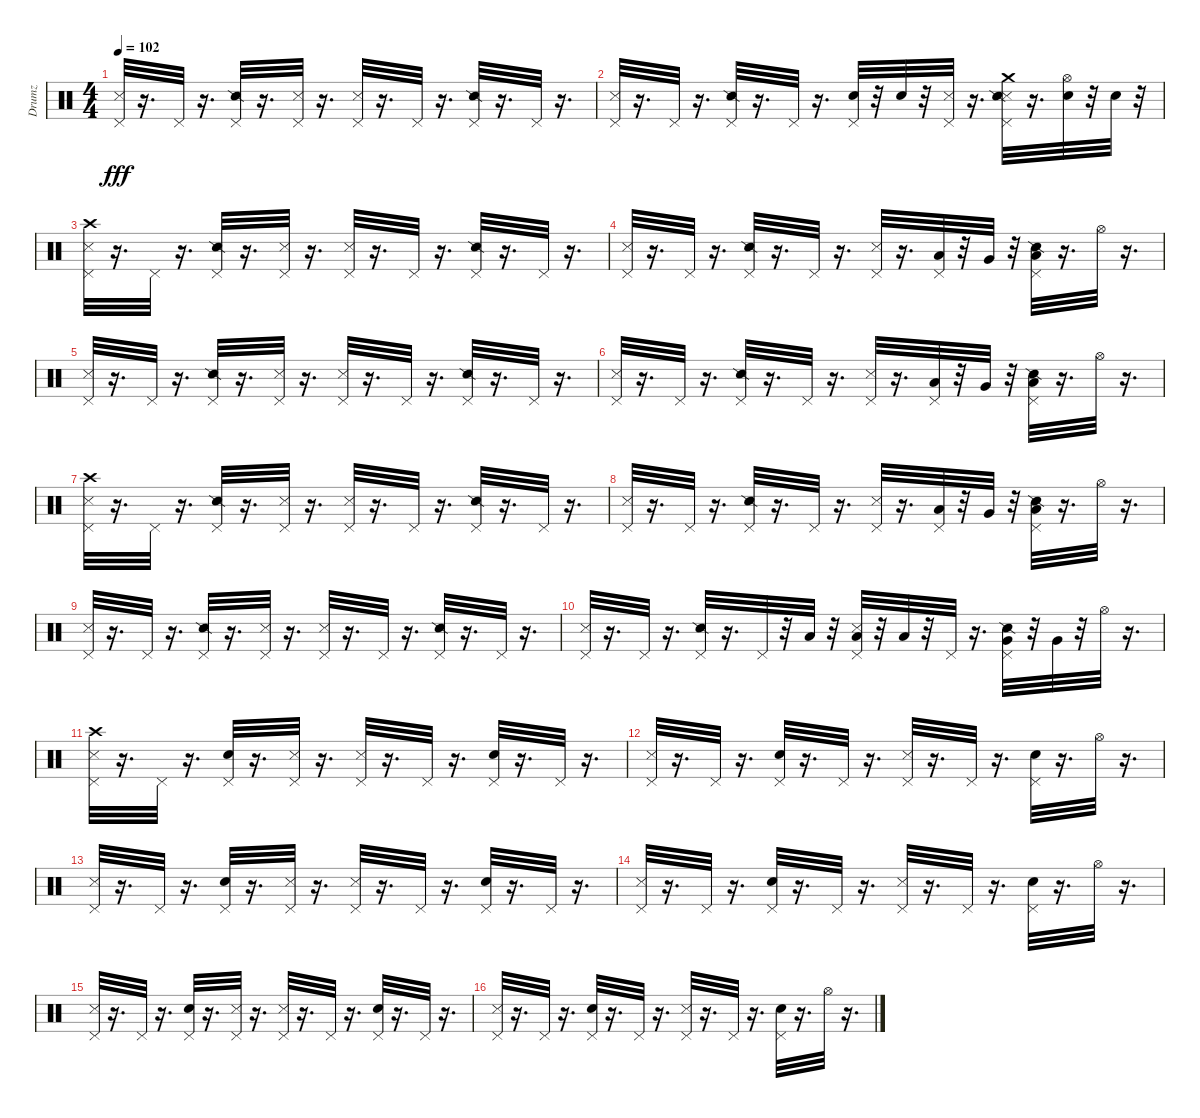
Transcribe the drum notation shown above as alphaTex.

\track ("Drumz" "Drumz") {instrument percussion}
\staff {score}
\articulation defaults
\ts (4 4)
\tempo 102
\clef neutral
\ks c
("Pedal Hi-Hat (hit)" "Metronome (hit)").32{dy fff} r.16{d} "Pedal Hi-Hat (hit)".32 r.16{d} ("Snare (side stick) 2" "Pedal Hi-Hat (hit)").32 r.16{d} ("Pedal Hi-Hat (hit)" "Metronome (hit)").32 r.16{d} ("Metronome (hit)" "Pedal Hi-Hat (hit)").32 r.16{d} "Pedal Hi-Hat (hit)".32 r.16{d} ("Pedal Hi-Hat (hit)" "Snare (side stick) 2").32 r.16{d} "Pedal Hi-Hat (hit)".32 r.16{d} |
("Pedal Hi-Hat (hit)" "Metronome (hit)").32 r.16{d} "Pedal Hi-Hat (hit)".32 r.16{d} ("Pedal Hi-Hat (hit)" "Snare (side stick) 2").32 r.16{d} "Pedal Hi-Hat (hit)".32 r.16{d} ("Snare (hit) 2" "Pedal Hi-Hat (hit)").32 r.32 "Snare (hit) 2".32 r.32 ("Pedal Hi-Hat (hit)" "Metronome (hit)").32 r.16{d} ("Crash medium (hit)" "Metronome (hit)" "Pedal Hi-Hat (hit)" "Snare (side stick) 2").32 r.16{d} ("Hi-Hat (open)" "Snare (hit) 2").32 r.32 "Snare (hit) 2".32 r.32 |
("Crash high (hit)" "Pedal Hi-Hat (hit)" "Metronome (hit)").32 r.16{d} "Pedal Hi-Hat (hit)".32 r.16{d} ("Pedal Hi-Hat (hit)" "Snare (side stick) 2").32 r.16{d} ("Pedal Hi-Hat (hit)" "Metronome (hit)").32 r.16{d} ("Metronome (hit)" "Pedal Hi-Hat (hit)").32 r.16{d} "Pedal Hi-Hat (hit)".32 r.16{d} ("Snare (side stick) 2" "Pedal Hi-Hat (hit)").32 r.16{d} "Pedal Hi-Hat (hit)".32 r.16{d} |
("Metronome (hit)" "Pedal Hi-Hat (hit)").32 r.16{d} "Pedal Hi-Hat (hit)".32 r.16{d} ("Pedal Hi-Hat (hit)" "Snare (side stick) 2").32 r.16{d} "Pedal Hi-Hat (hit)".32 r.16{d} ("Metronome (hit)" "Pedal Hi-Hat (hit)").32 r.16{d} ("Pedal Hi-Hat (hit)" "Low Floor Tom (hit)").32 r.32 "Very Low Tom (hit)".32 r.32 ("Snare (side stick) 2" "Pedal Hi-Hat (hit)" "Low Floor Tom (hit)").32 r.16{d} "Hi-Hat (open)".32 r.16{d} |
("Metronome (hit)" "Pedal Hi-Hat (hit)").32 r.16{d} "Pedal Hi-Hat (hit)".32 r.16{d} ("Pedal Hi-Hat (hit)" "Snare (side stick) 2").32 r.16{d} ("Pedal Hi-Hat (hit)" "Metronome (hit)").32 r.16{d} ("Metronome (hit)" "Pedal Hi-Hat (hit)").32 r.16{d} "Pedal Hi-Hat (hit)".32 r.16{d} ("Pedal Hi-Hat (hit)" "Snare (side stick) 2").32 r.16{d} "Pedal Hi-Hat (hit)".32 r.16{d} |
("Pedal Hi-Hat (hit)" "Metronome (hit)").32 r.16{d} "Pedal Hi-Hat (hit)".32 r.16{d} ("Snare (side stick) 2" "Pedal Hi-Hat (hit)").32 r.16{d} "Pedal Hi-Hat (hit)".32 r.16{d} ("Metronome (hit)" "Pedal Hi-Hat (hit)").32 r.16{d} ("Low Floor Tom (hit)" "Pedal Hi-Hat (hit)").32 r.32 "Very Low Tom (hit)".32 r.32 ("Pedal Hi-Hat (hit)" "Snare (side stick) 2" "Low Floor Tom (hit)").32 r.16{d} "Hi-Hat (open)".32 r.16{d} |
("Crash high (hit)" "Metronome (hit)" "Pedal Hi-Hat (hit)").32 r.16{d} "Pedal Hi-Hat (hit)".32 r.16{d} ("Snare (side stick) 2" "Pedal Hi-Hat (hit)").32 r.16{d} ("Metronome (hit)" "Pedal Hi-Hat (hit)").32 r.16{d} ("Metronome (hit)" "Pedal Hi-Hat (hit)").32 r.16{d} "Pedal Hi-Hat (hit)".32 r.16{d} ("Snare (side stick) 2" "Pedal Hi-Hat (hit)").32 r.16{d} "Pedal Hi-Hat (hit)".32 r.16{d} |
("Pedal Hi-Hat (hit)" "Metronome (hit)").32 r.16{d} "Pedal Hi-Hat (hit)".32 r.16{d} ("Pedal Hi-Hat (hit)" "Snare (side stick) 2").32 r.16{d} "Pedal Hi-Hat (hit)".32 r.16{d} ("Pedal Hi-Hat (hit)" "Metronome (hit)").32 r.16{d} ("Pedal Hi-Hat (hit)" "Low Floor Tom (hit)").32 r.32 "Very Low Tom (hit)".32 r.32 ("Low Floor Tom (hit)" "Pedal Hi-Hat (hit)" "Snare (side stick) 2").32 r.16{d} "Hi-Hat (open)".32 r.16{d} |
("Metronome (hit)" "Pedal Hi-Hat (hit)").32 r.16{d} "Pedal Hi-Hat (hit)".32 r.16{d} ("Snare (side stick) 2" "Pedal Hi-Hat (hit)").32 r.16{d} ("Metronome (hit)" "Pedal Hi-Hat (hit)").32 r.16{d} ("Metronome (hit)" "Pedal Hi-Hat (hit)").32 r.16{d} "Pedal Hi-Hat (hit)".32 r.16{d} ("Pedal Hi-Hat (hit)" "Snare (side stick) 2").32 r.16{d} "Pedal Hi-Hat (hit)".32 r.16{d} |
("Metronome (hit)" "Pedal Hi-Hat (hit)").32 r.16{d} "Pedal Hi-Hat (hit)".32 r.16{d} ("Pedal Hi-Hat (hit)" "Snare (side stick) 2").32 r.16{d} "Pedal Hi-Hat (hit)".32 r.32 "Low Floor Tom (hit)".32 r.32 ("Low Tom (hit)" "Metronome (hit)" "Pedal Hi-Hat (hit)").32 r.32 "Low Tom (hit)".32 r.32 "Pedal Hi-Hat (hit)".32 r.16{d} ("Very Low Tom (hit)" "Snare (side stick) 2" "Pedal Hi-Hat (hit)").32 r.32 "Very Low Tom (hit)".32 r.32 "Hi-Hat (open)".32 r.16{d} |
("Metronome (hit)" "Pedal Hi-Hat (hit)" "Crash high (hit)").32 r.16{d} "Pedal Hi-Hat (hit)".32 r.16{d} ("Pedal Hi-Hat (hit)" "Electric Snare (hit)").32 r.16{d} ("Metronome (hit)" "Pedal Hi-Hat (hit)").32 r.16{d} ("Pedal Hi-Hat (hit)" "Metronome (hit)").32 r.16{d} "Pedal Hi-Hat (hit)".32 r.16{d} ("Pedal Hi-Hat (hit)" "Electric Snare (hit)").32 r.16{d} "Pedal Hi-Hat (hit)".32 r.16{d} |
("Metronome (hit)" "Pedal Hi-Hat (hit)").32 r.16{d} "Pedal Hi-Hat (hit)".32 r.16{d} ("Pedal Hi-Hat (hit)" "Electric Snare (hit)").32 r.16{d} "Pedal Hi-Hat (hit)".32 r.16{d} ("Pedal Hi-Hat (hit)" "Metronome (hit)").32 r.16{d} "Pedal Hi-Hat (hit)".32 r.16{d} ("Pedal Hi-Hat (hit)" "Electric Snare (hit)").32 r.16{d} "Hi-Hat (open)".32 r.16{d} |
("Pedal Hi-Hat (hit)" "Metronome (hit)").32 r.16{d} "Pedal Hi-Hat (hit)".32 r.16{d} ("Electric Snare (hit)" "Pedal Hi-Hat (hit)").32 r.16{d} ("Pedal Hi-Hat (hit)" "Metronome (hit)").32 r.16{d} ("Metronome (hit)" "Pedal Hi-Hat (hit)").32 r.16{d} "Pedal Hi-Hat (hit)".32 r.16{d} ("Pedal Hi-Hat (hit)" "Electric Snare (hit)").32 r.16{d} "Pedal Hi-Hat (hit)".32 r.16{d} |
("Metronome (hit)" "Pedal Hi-Hat (hit)").32 r.16{d} "Pedal Hi-Hat (hit)".32 r.16{d} ("Pedal Hi-Hat (hit)" "Electric Snare (hit)").32 r.16{d} "Pedal Hi-Hat (hit)".32 r.16{d} ("Pedal Hi-Hat (hit)" "Metronome (hit)").32 r.16{d} "Pedal Hi-Hat (hit)".32 r.16{d} ("Electric Snare (hit)" "Pedal Hi-Hat (hit)").32 r.16{d} "Hi-Hat (open)".32 r.16{d} |
("Pedal Hi-Hat (hit)" "Metronome (hit)").32 r.16{d} "Pedal Hi-Hat (hit)".32 r.16{d} ("Electric Snare (hit)" "Pedal Hi-Hat (hit)").32 r.16{d} ("Pedal Hi-Hat (hit)" "Metronome (hit)").32 r.16{d} ("Pedal Hi-Hat (hit)" "Metronome (hit)").32 r.16{d} "Pedal Hi-Hat (hit)".32 r.16{d} ("Electric Snare (hit)" "Pedal Hi-Hat (hit)").32 r.16{d} "Pedal Hi-Hat (hit)".32 r.16{d} |
("Metronome (hit)" "Pedal Hi-Hat (hit)").32 r.16{d} "Pedal Hi-Hat (hit)".32 r.16{d} ("Pedal Hi-Hat (hit)" "Electric Snare (hit)").32 r.16{d} "Pedal Hi-Hat (hit)".32 r.16{d} ("Metronome (hit)" "Pedal Hi-Hat (hit)").32 r.16{d} "Pedal Hi-Hat (hit)".32 r.16{d} ("Electric Snare (hit)" "Pedal Hi-Hat (hit)").32 r.16{d} "Hi-Hat (open)".32 r.16{d}
